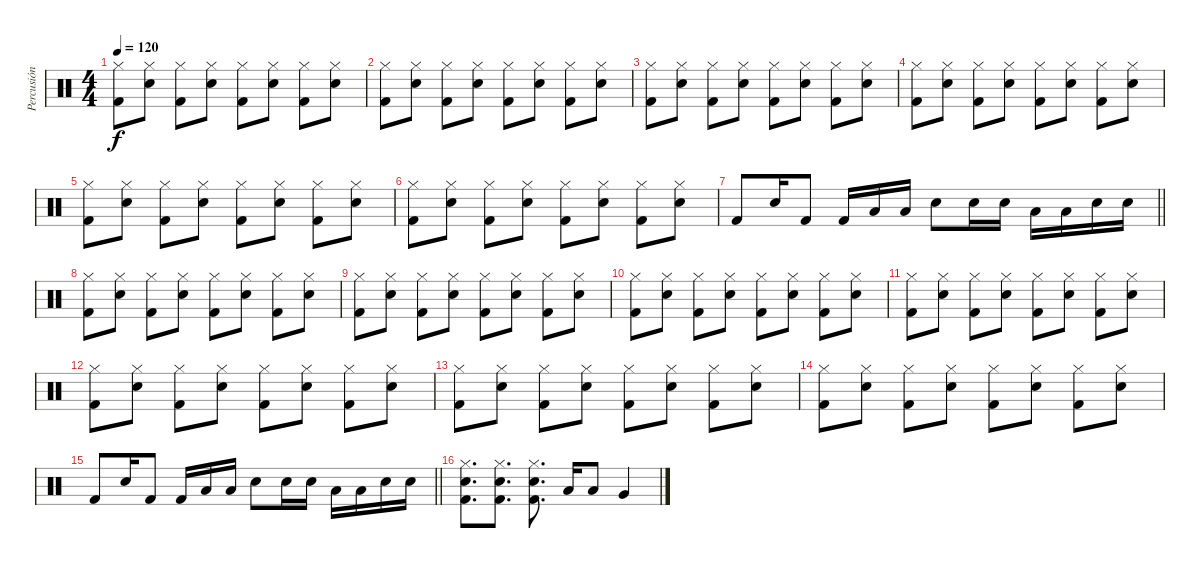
\track ("Percusión" "Percusión") {instrument percussion}
\staff {score}
\articulation defaults
\ts (4 4)
\tempo 120
\clef neutral
\ks c
("Hi-Hat (closed)" "Kick (hit) 2").8{dy f} ("Hi-Hat (closed)" "Electric Snare (hit)").8 ("Hi-Hat (closed)" "Kick (hit) 2").8 ("Hi-Hat (closed)" "Electric Snare (hit)").8 ("Hi-Hat (closed)" "Kick (hit) 2").8 ("Hi-Hat (closed)" "Electric Snare (hit)").8 ("Hi-Hat (closed)" "Kick (hit) 2").8 ("Hi-Hat (closed)" "Electric Snare (hit)").8 |
("Hi-Hat (closed)" "Kick (hit) 2").8 ("Hi-Hat (closed)" "Electric Snare (hit)").8 ("Hi-Hat (closed)" "Kick (hit) 2").8 ("Hi-Hat (closed)" "Electric Snare (hit)").8 ("Hi-Hat (closed)" "Kick (hit) 2").8 ("Hi-Hat (closed)" "Electric Snare (hit)").8 ("Hi-Hat (closed)" "Kick (hit) 2").8 ("Hi-Hat (closed)" "Electric Snare (hit)").8 |
("Hi-Hat (closed)" "Kick (hit) 2").8 ("Hi-Hat (closed)" "Electric Snare (hit)").8 ("Hi-Hat (closed)" "Kick (hit) 2").8 ("Hi-Hat (closed)" "Electric Snare (hit)").8 ("Hi-Hat (closed)" "Kick (hit) 2").8 ("Hi-Hat (closed)" "Electric Snare (hit)").8 ("Hi-Hat (closed)" "Kick (hit) 2").8 ("Hi-Hat (closed)" "Electric Snare (hit)").8 |
("Hi-Hat (closed)" "Kick (hit) 2").8 ("Hi-Hat (closed)" "Electric Snare (hit)").8 ("Hi-Hat (closed)" "Kick (hit) 2").8 ("Hi-Hat (closed)" "Electric Snare (hit)").8 ("Hi-Hat (closed)" "Kick (hit) 2").8 ("Hi-Hat (closed)" "Electric Snare (hit)").8 ("Hi-Hat (closed)" "Kick (hit) 2").8 ("Hi-Hat (closed)" "Electric Snare (hit)").8 |
("Hi-Hat (closed)" "Kick (hit) 2").8 ("Hi-Hat (closed)" "Electric Snare (hit)").8 ("Hi-Hat (closed)" "Kick (hit) 2").8 ("Hi-Hat (closed)" "Electric Snare (hit)").8 ("Hi-Hat (closed)" "Kick (hit) 2").8 ("Hi-Hat (closed)" "Electric Snare (hit)").8 ("Hi-Hat (closed)" "Kick (hit) 2").8 ("Hi-Hat (closed)" "Electric Snare (hit)").8 |
("Hi-Hat (closed)" "Kick (hit) 2").8 ("Hi-Hat (closed)" "Electric Snare (hit)").8 ("Hi-Hat (closed)" "Kick (hit) 2").8 ("Hi-Hat (closed)" "Electric Snare (hit)").8 ("Hi-Hat (closed)" "Kick (hit) 2").8 ("Hi-Hat (closed)" "Electric Snare (hit)").8 ("Hi-Hat (closed)" "Kick (hit) 2").8 ("Hi-Hat (closed)" "Electric Snare (hit)").8 |
\barLineRight lightlight "Kick (hit) 2".8 "Electric Snare (hit)".16 "Kick (hit) 2".8 "Kick (hit) 2".16 "Low Tom (hit)".16 "Low Tom (hit)".16 "Electric Snare (hit)".8 "Electric Snare (hit)".16 "Electric Snare (hit)".16 "Low Tom (hit)".16 "Low Tom (hit)".16 "Electric Snare (hit)".16 "Electric Snare (hit)".16
|
("Hi-Hat (closed)" "Kick (hit) 2").8 ("Hi-Hat (closed)" "Electric Snare (hit)").8 ("Hi-Hat (closed)" "Kick (hit) 2").8 ("Hi-Hat (closed)" "Electric Snare (hit)").8 ("Hi-Hat (closed)" "Kick (hit) 2").8 ("Hi-Hat (closed)" "Electric Snare (hit)").8 ("Hi-Hat (closed)" "Kick (hit) 2").8 ("Hi-Hat (closed)" "Electric Snare (hit)").8 |
("Hi-Hat (closed)" "Kick (hit) 2").8 ("Hi-Hat (closed)" "Electric Snare (hit)").8 ("Hi-Hat (closed)" "Kick (hit) 2").8 ("Hi-Hat (closed)" "Electric Snare (hit)").8 ("Hi-Hat (closed)" "Kick (hit) 2").8 ("Hi-Hat (closed)" "Electric Snare (hit)").8 ("Hi-Hat (closed)" "Kick (hit) 2").8 ("Hi-Hat (closed)" "Electric Snare (hit)").8 |
("Hi-Hat (closed)" "Kick (hit) 2").8 ("Hi-Hat (closed)" "Electric Snare (hit)").8 ("Hi-Hat (closed)" "Kick (hit) 2").8 ("Hi-Hat (closed)" "Electric Snare (hit)").8 ("Hi-Hat (closed)" "Kick (hit) 2").8 ("Hi-Hat (closed)" "Electric Snare (hit)").8 ("Hi-Hat (closed)" "Kick (hit) 2").8 ("Hi-Hat (closed)" "Electric Snare (hit)").8 |
("Hi-Hat (closed)" "Kick (hit) 2").8 ("Hi-Hat (closed)" "Electric Snare (hit)").8 ("Hi-Hat (closed)" "Kick (hit) 2").8 ("Hi-Hat (closed)" "Electric Snare (hit)").8 ("Hi-Hat (closed)" "Kick (hit) 2").8 ("Hi-Hat (closed)" "Electric Snare (hit)").8 ("Hi-Hat (closed)" "Kick (hit) 2").8 ("Hi-Hat (closed)" "Electric Snare (hit)").8 |
("Hi-Hat (closed)" "Kick (hit) 2").8 ("Hi-Hat (closed)" "Electric Snare (hit)").8 ("Hi-Hat (closed)" "Kick (hit) 2").8 ("Hi-Hat (closed)" "Electric Snare (hit)").8 ("Hi-Hat (closed)" "Kick (hit) 2").8 ("Hi-Hat (closed)" "Electric Snare (hit)").8 ("Hi-Hat (closed)" "Kick (hit) 2").8 ("Hi-Hat (closed)" "Electric Snare (hit)").8 |
("Hi-Hat (closed)" "Kick (hit) 2").8 ("Hi-Hat (closed)" "Electric Snare (hit)").8 ("Hi-Hat (closed)" "Kick (hit) 2").8 ("Hi-Hat (closed)" "Electric Snare (hit)").8 ("Hi-Hat (closed)" "Kick (hit) 2").8 ("Hi-Hat (closed)" "Electric Snare (hit)").8 ("Hi-Hat (closed)" "Kick (hit) 2").8 ("Hi-Hat (closed)" "Electric Snare (hit)").8 |
("Hi-Hat (closed)" "Kick (hit) 2").8 ("Hi-Hat (closed)" "Electric Snare (hit)").8 ("Hi-Hat (closed)" "Kick (hit) 2").8 ("Hi-Hat (closed)" "Electric Snare (hit)").8 ("Hi-Hat (closed)" "Kick (hit) 2").8 ("Hi-Hat (closed)" "Electric Snare (hit)").8 ("Hi-Hat (closed)" "Kick (hit) 2").8 ("Hi-Hat (closed)" "Electric Snare (hit)").8 |
\barLineRight lightlight "Kick (hit) 2".8 "Electric Snare (hit)".16 "Kick (hit) 2".8 "Kick (hit) 2".16 "Low Tom (hit)".16 "Low Tom (hit)".16 "Electric Snare (hit)".8 "Electric Snare (hit)".16 "Electric Snare (hit)".16 "Low Tom (hit)".16 "Low Tom (hit)".16 "Electric Snare (hit)".16 "Electric Snare (hit)".16
|
("Kick (hit) 2" "Electric Snare (hit)" "Hi-Hat (closed)").8{d} ("Kick (hit) 2" "Electric Snare (hit)" "Hi-Hat (closed)").8{d} ("Kick (hit) 2" "Electric Snare (hit)" "Hi-Hat (closed)").8{d} "Low Tom (hit)".16 "Low Tom (hit)".8 "Very Low Tom (hit)".4
